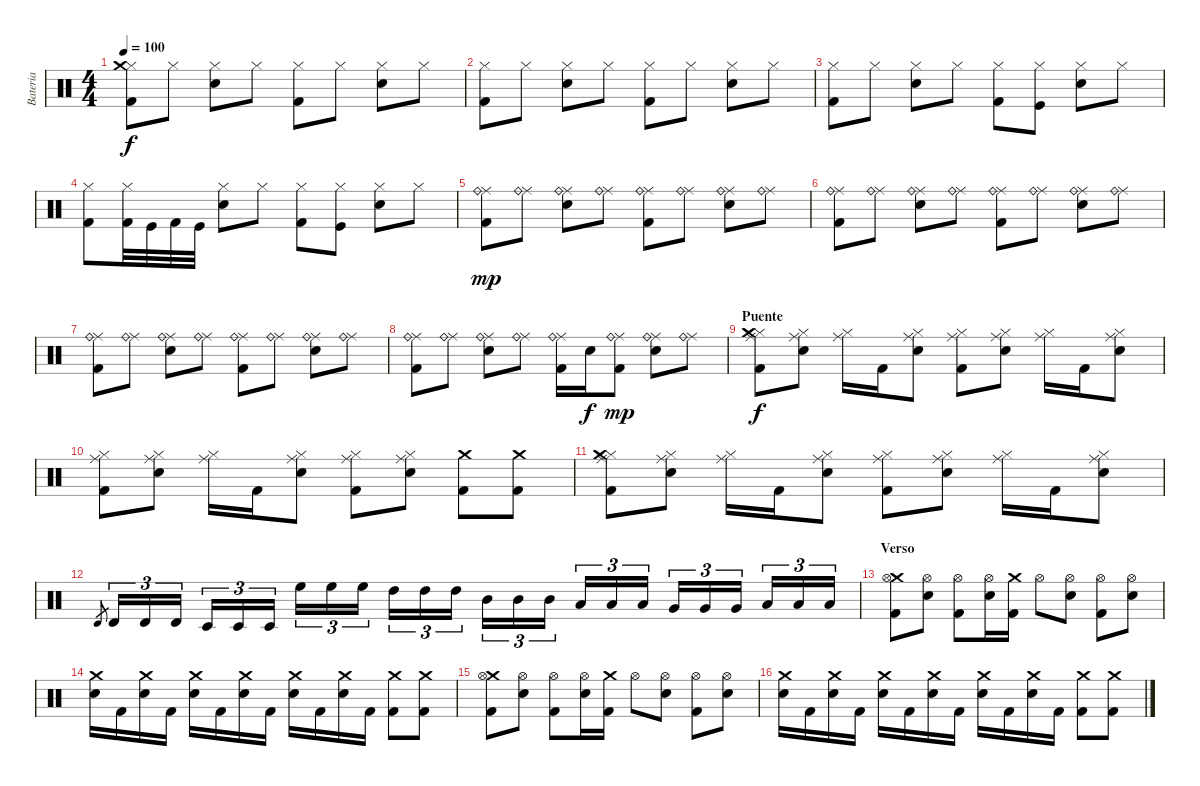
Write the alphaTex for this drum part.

\track ("Bateria" "Bateria") {instrument percussion}
\staff {score}
\articulation defaults
\ts (4 4)
\tempo 100
\clef neutral
\ks c
("Hi-Hat (closed)" "Kick (hit) 2" "Crash medium (hit)").8{dy f} "Hi-Hat (closed)".8 ("Snare (hit) 2" "Hi-Hat (closed)").8 "Hi-Hat (closed)".8 ("Hi-Hat (closed)" "Kick (hit) 2").8 "Hi-Hat (closed)".8 ("Snare (hit) 2" "Hi-Hat (closed)").8 "Hi-Hat (closed)".8 |
("Hi-Hat (closed)" "Kick (hit) 2").8 "Hi-Hat (closed)".8 ("Snare (hit) 2" "Hi-Hat (closed)").8 "Hi-Hat (closed)".8 ("Hi-Hat (closed)" "Kick (hit) 2").8 "Hi-Hat (closed)".8 ("Snare (hit) 2" "Hi-Hat (closed)").8 "Hi-Hat (closed)".8 |
("Hi-Hat (closed)" "Kick (hit) 2").8 "Hi-Hat (closed)".8 ("Snare (hit) 2" "Hi-Hat (closed)").8 "Hi-Hat (closed)".8 ("Hi-Hat (closed)" "Kick (hit) 2").8 ("Hi-Hat (closed)" "Kick (hit)").8 ("Snare (hit) 2" "Hi-Hat (closed)").8 "Hi-Hat (closed)".8 |
("Hi-Hat (closed)" "Kick (hit) 2").8 ("Hi-Hat (closed)" "Kick (hit) 2").32 "Kick (hit)".32 "Kick (hit) 2".32 "Kick (hit)".32 ("Snare (hit) 2" "Hi-Hat (closed)").8 "Hi-Hat (closed)".8 ("Hi-Hat (closed)" "Kick (hit) 2").8 ("Hi-Hat (closed)" "Kick (hit)").8 ("Snare (hit) 2" "Hi-Hat (closed)").8 "Hi-Hat (closed)".8 |
("Ride (middle)" "Kick (hit) 2" "Ride (bell)").8{dy mp} ("Ride (middle)" "Ride (bell)").8 ("Ride (middle)" "Snare (hit) 2" "Ride (bell)").8 ("Ride (middle)" "Ride (bell)").8 ("Ride (middle)" "Kick (hit) 2" "Ride (bell)").8 ("Ride (middle)" "Ride (bell)").8 ("Ride (middle)" "Snare (hit) 2" "Ride (bell)").8 ("Ride (middle)" "Ride (bell)").8 |
("Ride (middle)" "Kick (hit) 2" "Ride (bell)").8 ("Ride (middle)" "Ride (bell)").8 ("Ride (middle)" "Snare (hit) 2" "Ride (bell)").8 ("Ride (middle)" "Ride (bell)").8 ("Ride (middle)" "Kick (hit) 2" "Ride (bell)").8 ("Ride (middle)" "Ride (bell)").8 ("Ride (middle)" "Snare (hit) 2" "Ride (bell)").8 ("Ride (middle)" "Ride (bell)").8 |
("Ride (middle)" "Kick (hit) 2" "Ride (bell)").8 ("Ride (middle)" "Ride (bell)").8 ("Ride (middle)" "Snare (hit) 2" "Ride (bell)").8 ("Ride (middle)" "Ride (bell)").8 ("Ride (middle)" "Kick (hit) 2" "Ride (bell)").8 ("Ride (middle)" "Ride (bell)").8 ("Ride (middle)" "Snare (hit) 2" "Ride (bell)").8 ("Ride (middle)" "Ride (bell)").8 |
("Ride (middle)" "Kick (hit) 2" "Ride (bell)").8 ("Ride (middle)" "Ride (bell)").8 ("Ride (middle)" "Snare (hit) 2" "Ride (bell)").8 ("Ride (middle)" "Ride (bell)").8 ("Ride (middle)" "Kick (hit) 2" "Ride (bell)").16 "Snare (hit) 2".16{dy f} ("Ride (middle)" "Kick (hit) 2" "Ride (bell)").8{dy mp} ("Ride (middle)" "Snare (hit) 2" "Ride (bell)").8 ("Ride (middle)" "Ride (bell)").8 |
\section ("" "Puente")
("Ride (middle)" "Hi-Hat (closed)" "Kick (hit) 2" "Crash medium (hit)").8{dy f} ("Ride (middle)" "Hi-Hat (closed)" "Snare (hit) 2").8 ("Ride (middle)" "Hi-Hat (closed)").16 "Kick (hit) 2".16 ("Ride (middle)" "Hi-Hat (closed)" "Snare (hit) 2").8 ("Ride (middle)" "Hi-Hat (closed)" "Kick (hit) 2").8 ("Ride (middle)" "Hi-Hat (closed)" "Snare (hit) 2").8 ("Ride (middle)" "Hi-Hat (closed)").16 "Kick (hit) 2".16 ("Ride (middle)" "Hi-Hat (closed)" "Snare (hit) 2").8 |
("Ride (middle)" "Hi-Hat (closed)" "Kick (hit) 2").8 ("Ride (middle)" "Hi-Hat (closed)" "Snare (hit) 2").8 ("Ride (middle)" "Hi-Hat (closed)").16 "Kick (hit) 2".16 ("Ride (middle)" "Hi-Hat (closed)" "Snare (hit) 2").8 ("Ride (middle)" "Hi-Hat (closed)" "Kick (hit) 2").8 ("Ride (middle)" "Hi-Hat (closed)" "Snare (hit) 2").8 ("Crash medium (hit)" "Kick (hit) 2").8 ("Crash medium (hit)" "Kick (hit) 2").8 |
("Ride (middle)" "Hi-Hat (closed)" "Kick (hit) 2" "Crash medium (hit)").8 ("Ride (middle)" "Hi-Hat (closed)" "Snare (hit) 2").8 ("Ride (middle)" "Hi-Hat (closed)").16 "Kick (hit) 2".16 ("Ride (middle)" "Hi-Hat (closed)" "Snare (hit) 2").8 ("Ride (middle)" "Hi-Hat (closed)" "Kick (hit) 2").8 ("Ride (middle)" "Hi-Hat (closed)" "Snare (hit) 2").8 ("Ride (middle)" "Hi-Hat (closed)").16 "Kick (hit) 2".16 ("Ride (middle)" "Hi-Hat (closed)" "Snare (hit) 2").8 |
"Timbale high (hit)".8{gr} "Timbale high (hit)".16{tu (3 2)} "Timbale high (hit)".16{tu (3 2)} "Timbale high (hit)".16{tu (3 2)} "Timbale low (hit)".16{tu (3 2)} "Timbale low (hit)".16{tu (3 2)} "Timbale low (hit)".16{tu (3 2)} "High Floor Tom (hit)".16{tu (3 2)} "High Floor Tom (hit)".16{tu (3 2)} "High Floor Tom (hit)".16{tu (3 2)} "High Tom (hit)".16{tu (3 2)} "High Tom (hit)".16{tu (3 2)} "High Tom (hit)".16{tu (3 2)} "Mid Tom (hit)".16{tu (3 2)} "Mid Tom (hit)".16{tu (3 2)} "Mid Tom (hit)".16{tu (3 2)} "Low Tom (hit)".16{tu (3 2)} "Low Tom (hit)".16{tu (3 2)} "Low Tom (hit)".16{tu (3 2)} "Very Low Tom (hit)".16{tu (3 2)} "Very Low Tom (hit)".16{tu (3 2)} "Very Low Tom (hit)".16{tu (3 2)} "Low Floor Tom (hit)".16{tu (3 2)} "Low Floor Tom (hit)".16{tu (3 2)} "Low Floor Tom (hit)".16{tu (3 2)} |
\section ("" "Verso")
("Crash medium (hit)" "Kick (hit) 2" "Hi-Hat (open)").8 ("Snare (hit) 2" "Hi-Hat (open)").8 ("Hi-Hat (open)" "Kick (hit) 2").8 ("Hi-Hat (open)" "Snare (hit) 2").16 ("Crash medium (hit)" "Kick (hit) 2").16 "Hi-Hat (open)".8 ("Hi-Hat (open)" "Snare (hit) 2").8 ("Hi-Hat (open)" "Kick (hit) 2").8 ("Hi-Hat (open)" "Snare (hit) 2").8 |
("Snare (hit) 2" "Crash medium (hit)").16 "Kick (hit) 2".16 ("Snare (hit) 2" "Crash medium (hit)").16 "Kick (hit) 2".16 ("Snare (hit) 2" "Crash medium (hit)").16 "Kick (hit) 2".16 ("Snare (hit) 2" "Crash medium (hit)").16 "Kick (hit) 2".16 ("Snare (hit) 2" "Crash medium (hit)").16 "Kick (hit) 2".16 ("Snare (hit) 2" "Crash medium (hit)").16 "Kick (hit) 2".16 ("Kick (hit) 2" "Crash medium (hit)").8 ("Kick (hit) 2" "Crash medium (hit)").8 |
("Crash medium (hit)" "Kick (hit) 2" "Hi-Hat (open)").8 ("Snare (hit) 2" "Hi-Hat (open)").8 ("Hi-Hat (open)" "Kick (hit) 2").8 ("Hi-Hat (open)" "Snare (hit) 2").16 ("Crash medium (hit)" "Kick (hit) 2").16 "Hi-Hat (open)".8 ("Hi-Hat (open)" "Snare (hit) 2").8 ("Hi-Hat (open)" "Kick (hit) 2").8 ("Hi-Hat (open)" "Snare (hit) 2").8 |
("Snare (hit) 2" "Crash medium (hit)").16 "Kick (hit) 2".16 ("Snare (hit) 2" "Crash medium (hit)").16 "Kick (hit) 2".16 ("Snare (hit) 2" "Crash medium (hit)").16 "Kick (hit) 2".16 ("Snare (hit) 2" "Crash medium (hit)").16 "Kick (hit) 2".16 ("Snare (hit) 2" "Crash medium (hit)").16 "Kick (hit) 2".16 ("Snare (hit) 2" "Crash medium (hit)").16 "Kick (hit) 2".16 ("Kick (hit) 2" "Crash medium (hit)").8 ("Kick (hit) 2" "Crash medium (hit)").8
